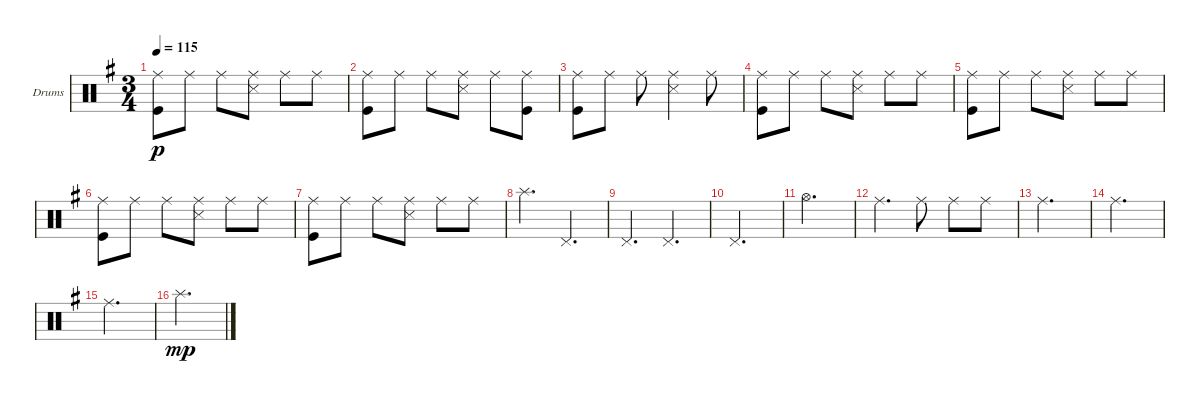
\defaultSystemsLayout 4
\bracketExtendMode groupsimilarinstruments
\firstSystemTrackNameOrientation horizontal
\otherSystemsTrackNameOrientation horizontal
\track ("Drumkit" "Drums") {multiBarRest instrument percussion}
\staff {score}
\articulation defaults
\ts (3 4)
\tempo 115
\clef neutral
\ks eminor
("Kick (hit)" "Ride (middle)").8{dy p} "Ride (middle)".8 "Ride (middle)".8 ("Ride (middle)" "Snare (side stick) 3").8 "Ride (middle)".8 "Ride (middle)".8 |
("Kick (hit)" "Ride (middle)").8 "Ride (middle)".8 "Ride (middle)".8 ("Ride (middle)" "Snare (side stick) 3").8 "Ride (middle)".8 ("Ride (middle)" "Kick (hit)").8 |
("Kick (hit)" "Ride (middle)").8 "Ride (middle)".8 "Ride (middle)".8 ("Ride (middle)" "Snare (side stick) 3").4 "Ride (middle)".8 |
("Kick (hit)" "Ride (middle)").8 "Ride (middle)".8 "Ride (middle)".8 ("Ride (middle)" "Snare (side stick) 3").8 "Ride (middle)".8 "Ride (middle)".8 |
("Kick (hit)" "Ride (middle)").8 "Ride (middle)".8 "Ride (middle)".8 ("Ride (middle)" "Snare (side stick) 3").8 "Ride (middle)".8 "Ride (middle)".8 |
("Kick (hit)" "Ride (middle)").8 "Ride (middle)".8 "Ride (middle)".8 ("Ride (middle)" "Snare (side stick) 3").8 "Ride (middle)".8 "Ride (middle)".8 |
("Kick (hit)" "Ride (middle)").8 "Ride (middle)".8 "Ride (middle)".8 ("Ride (middle)" "Snare (side stick) 3").8 "Ride (middle)".8 "Ride (middle)".8 |
"Splash (hit)".4{d} "Pedal Hi-Hat (hit)".4{d} |
"Pedal Hi-Hat (hit)".4{d} "Pedal Hi-Hat (hit)".4{d} |
"Pedal Hi-Hat (hit)".2{d} |
"Hi-Hat (open)".2{d} |
"Ride (middle)".4{d} "Ride (middle)".8 "Ride (middle)".8 "Ride (middle)".8 |
"Ride (middle)".2{d} |
"Ride (middle)".2{d} |
"Ride (middle)".2{d} |
"Splash (hit)".2{d dy mp}
